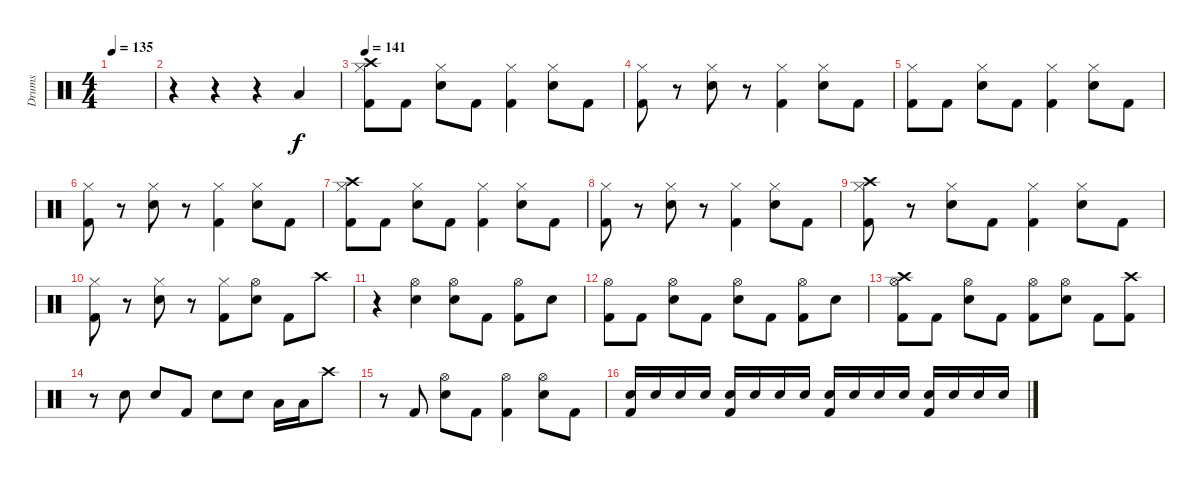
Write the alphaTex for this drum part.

\track ("Drums" "Drums") {instrument percussion}
\staff {score}
\articulation defaults
\ts (4 4)
\tempo 135
\clef neutral
\ks c
|
r.4 r.4 r.4 "Low Tom (hit)".4 |
\tempo 141
("Crash high (hit)" "Hi-Hat (closed)" "Kick (hit) 2").8 "Kick (hit) 2".8 ("Hi-Hat (closed)" "Electric Snare (hit)").8 "Kick (hit) 2".8 ("Hi-Hat (closed)" "Kick (hit) 2").4 ("Hi-Hat (closed)" "Electric Snare (hit)").8 "Kick (hit) 2".8 |
("Hi-Hat (closed)" "Kick (hit) 2").8 r.8 ("Hi-Hat (closed)" "Electric Snare (hit)").8 r.8 ("Hi-Hat (closed)" "Kick (hit) 2").4 ("Hi-Hat (closed)" "Electric Snare (hit)").8 "Kick (hit) 2".8 |
("Hi-Hat (closed)" "Kick (hit) 2").8 "Kick (hit) 2".8 ("Hi-Hat (closed)" "Electric Snare (hit)").8 "Kick (hit) 2".8 ("Hi-Hat (closed)" "Kick (hit) 2").4 ("Hi-Hat (closed)" "Electric Snare (hit)").8 "Kick (hit) 2".8 |
("Hi-Hat (closed)" "Kick (hit) 2").8 r.8 ("Hi-Hat (closed)" "Electric Snare (hit)").8 r.8 ("Hi-Hat (closed)" "Kick (hit) 2").4 ("Hi-Hat (closed)" "Electric Snare (hit)").8 "Kick (hit) 2".8 |
("Crash high (hit)" "Hi-Hat (closed)" "Kick (hit) 2").8 "Kick (hit) 2".8 ("Hi-Hat (closed)" "Electric Snare (hit)").8 "Kick (hit) 2".8 ("Hi-Hat (closed)" "Kick (hit) 2").4 ("Hi-Hat (closed)" "Electric Snare (hit)").8 "Kick (hit) 2".8 |
("Hi-Hat (closed)" "Kick (hit) 2").8 r.8 ("Hi-Hat (closed)" "Electric Snare (hit)").8 r.8 ("Hi-Hat (closed)" "Kick (hit) 2").4 ("Hi-Hat (closed)" "Electric Snare (hit)").8 "Kick (hit) 2".8 |
("Crash high (hit)" "Hi-Hat (closed)" "Kick (hit) 2").8 r.8 ("Hi-Hat (closed)" "Electric Snare (hit)").8 "Kick (hit) 2".8 ("Hi-Hat (closed)" "Kick (hit) 2").4 ("Hi-Hat (closed)" "Electric Snare (hit)").8 "Kick (hit) 2".8 |
("Hi-Hat (closed)" "Kick (hit) 2").8 r.8 ("Hi-Hat (closed)" "Electric Snare (hit)").8 r.8 ("Hi-Hat (closed)" "Kick (hit) 2").8 ("Hi-Hat (open)" "Electric Snare (hit)").8 "Kick (hit) 2".8 "Crash high (hit)".8 |
r.4 ("Hi-Hat (open)" "Electric Snare (hit)").4 ("Hi-Hat (open)" "Electric Snare (hit)").8 "Kick (hit) 2".8 ("Hi-Hat (open)" "Kick (hit) 2").8 "Electric Snare (hit)".8 |
("Hi-Hat (open)" "Kick (hit) 2").8 "Kick (hit) 2".8 ("Hi-Hat (open)" "Electric Snare (hit)").8 "Kick (hit) 2".8 ("Hi-Hat (open)" "Electric Snare (hit)").8 "Kick (hit) 2".8 ("Hi-Hat (open)" "Kick (hit) 2").8 "Electric Snare (hit)".8 |
("Crash high (hit)" "Hi-Hat (open)" "Kick (hit) 2").8 "Kick (hit) 2".8 ("Hi-Hat (open)" "Electric Snare (hit)").8 "Kick (hit) 2".8 ("Hi-Hat (open)" "Kick (hit) 2").8 ("Hi-Hat (open)" "Electric Snare (hit)").8 "Kick (hit) 2".8 ("Crash high (hit)" "Kick (hit) 2").8 |
r.8 "Electric Snare (hit)".8 "Electric Snare (hit)".8 "Kick (hit) 2".8 "Electric Snare (hit)".8 "Electric Snare (hit)".8 "Low Tom (hit)".16 "Low Tom (hit)".16 "Crash high (hit)".8 |
r.8 "Kick (hit) 2".8 ("Hi-Hat (open)" "Electric Snare (hit)").8 "Kick (hit) 2".8 ("Hi-Hat (open)" "Kick (hit) 2").4 ("Hi-Hat (open)" "Electric Snare (hit)").8 "Kick (hit) 2".8 |
("Electric Snare (hit)" "Kick (hit) 2").16 "Electric Snare (hit)".16 "Electric Snare (hit)".16 "Electric Snare (hit)".16 ("Electric Snare (hit)" "Kick (hit) 2").16 "Electric Snare (hit)".16 "Electric Snare (hit)".16 "Electric Snare (hit)".16 ("Electric Snare (hit)" "Kick (hit) 2").16 "Electric Snare (hit)".16 "Electric Snare (hit)".16 "Electric Snare (hit)".16 ("Electric Snare (hit)" "Kick (hit) 2").16 "Electric Snare (hit)".16 "Electric Snare (hit)".16 "Electric Snare (hit)".16
